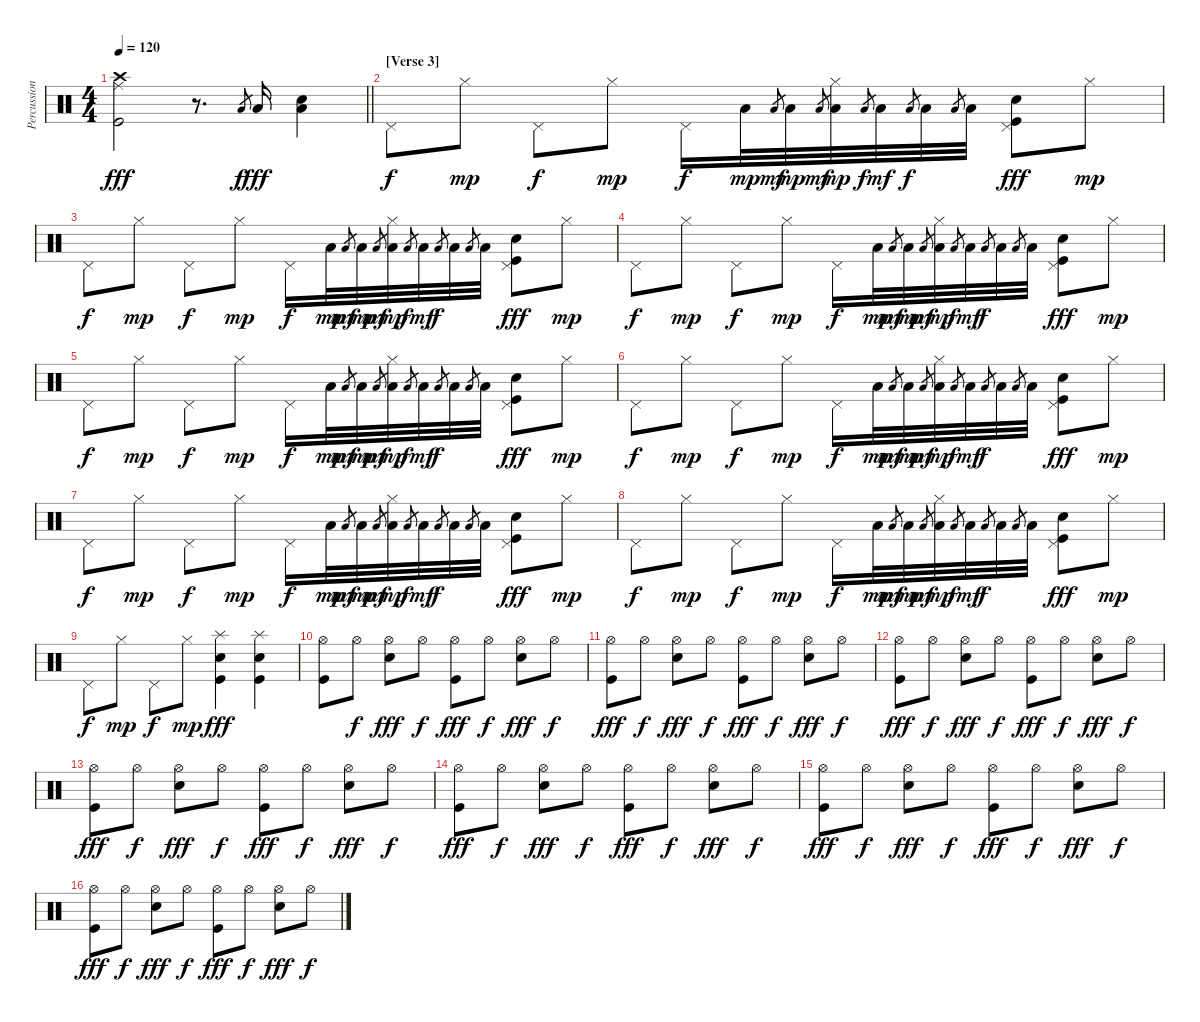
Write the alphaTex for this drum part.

\track ("Percussion" "Percussion") {instrument percussion}
\staff {score}
\articulation defaults
\ts (4 4)
\tempo 120
\clef neutral
\barLineRight lightlight
\ks c
("Crash high (hit)" "Ride (middle)" "Kick (hit)").2{dy fff} r.8{d} "Low Tom (hit)".8{gr dy f} "Low Tom (hit)".16{dy fff} ("Snare (hit) 2" "Low Tom (hit)").4 |
\section ("" "[Verse 3]")
"Pedal Hi-Hat (hit)".8{dy f} "Hi-Hat (closed)".8{dy mp} "Pedal Hi-Hat (hit)".8{dy f} "Hi-Hat (closed)".8{dy mp} "Pedal Hi-Hat (hit)".16{dy f} "Low Tom (hit)".32{dy mp} "Low Tom (hit)".8{gr dy mf} "Low Tom (hit)".32{dy mp} "Low Tom (hit)".8{gr dy mf} ("Hi-Hat (closed)" "Low Tom (hit)").32{dy mp} "Low Tom (hit)".8{gr dy f} "Low Tom (hit)".32{dy mf} "Low Tom (hit)".8{gr dy f} "Low Tom (hit)".32 "Low Tom (hit)".8{gr} "Low Tom (hit)".32 ("Pedal Hi-Hat (hit)" "Snare (hit) 2" "Kick (hit)").8{dy fff} "Hi-Hat (closed)".8{dy mp} |
"Pedal Hi-Hat (hit)".8{dy f} "Hi-Hat (closed)".8{dy mp} "Pedal Hi-Hat (hit)".8{dy f} "Hi-Hat (closed)".8{dy mp} "Pedal Hi-Hat (hit)".16{dy f} "Low Tom (hit)".32{dy mp} "Low Tom (hit)".8{gr dy mf} "Low Tom (hit)".32{dy mp} "Low Tom (hit)".8{gr dy mf} ("Hi-Hat (closed)" "Low Tom (hit)").32{dy mp} "Low Tom (hit)".8{gr dy f} "Low Tom (hit)".32{dy mf} "Low Tom (hit)".8{gr dy f} "Low Tom (hit)".32 "Low Tom (hit)".8{gr} "Low Tom (hit)".32 ("Pedal Hi-Hat (hit)" "Snare (hit) 2" "Kick (hit)").8{dy fff} "Hi-Hat (closed)".8{dy mp} |
"Pedal Hi-Hat (hit)".8{dy f} "Hi-Hat (closed)".8{dy mp} "Pedal Hi-Hat (hit)".8{dy f} "Hi-Hat (closed)".8{dy mp} "Pedal Hi-Hat (hit)".16{dy f} "Low Tom (hit)".32{dy mp} "Low Tom (hit)".8{gr dy mf} "Low Tom (hit)".32{dy mp} "Low Tom (hit)".8{gr dy mf} ("Hi-Hat (closed)" "Low Tom (hit)").32{dy mp} "Low Tom (hit)".8{gr dy f} "Low Tom (hit)".32{dy mf} "Low Tom (hit)".8{gr dy f} "Low Tom (hit)".32 "Low Tom (hit)".8{gr} "Low Tom (hit)".32 ("Pedal Hi-Hat (hit)" "Snare (hit) 2" "Kick (hit)").8{dy fff} "Hi-Hat (closed)".8{dy mp} |
"Pedal Hi-Hat (hit)".8{dy f} "Hi-Hat (closed)".8{dy mp} "Pedal Hi-Hat (hit)".8{dy f} "Hi-Hat (closed)".8{dy mp} "Pedal Hi-Hat (hit)".16{dy f} "Low Tom (hit)".32{dy mp} "Low Tom (hit)".8{gr dy mf} "Low Tom (hit)".32{dy mp} "Low Tom (hit)".8{gr dy mf} ("Hi-Hat (closed)" "Low Tom (hit)").32{dy mp} "Low Tom (hit)".8{gr dy f} "Low Tom (hit)".32{dy mf} "Low Tom (hit)".8{gr dy f} "Low Tom (hit)".32 "Low Tom (hit)".8{gr} "Low Tom (hit)".32 ("Pedal Hi-Hat (hit)" "Snare (hit) 2" "Kick (hit)").8{dy fff} "Hi-Hat (closed)".8{dy mp} |
"Pedal Hi-Hat (hit)".8{dy f} "Hi-Hat (closed)".8{dy mp} "Pedal Hi-Hat (hit)".8{dy f} "Hi-Hat (closed)".8{dy mp} "Pedal Hi-Hat (hit)".16{dy f} "Low Tom (hit)".32{dy mp} "Low Tom (hit)".8{gr dy mf} "Low Tom (hit)".32{dy mp} "Low Tom (hit)".8{gr dy mf} ("Hi-Hat (closed)" "Low Tom (hit)").32{dy mp} "Low Tom (hit)".8{gr dy f} "Low Tom (hit)".32{dy mf} "Low Tom (hit)".8{gr dy f} "Low Tom (hit)".32 "Low Tom (hit)".8{gr} "Low Tom (hit)".32 ("Pedal Hi-Hat (hit)" "Snare (hit) 2" "Kick (hit)").8{dy fff} "Hi-Hat (closed)".8{dy mp} |
"Pedal Hi-Hat (hit)".8{dy f} "Hi-Hat (closed)".8{dy mp} "Pedal Hi-Hat (hit)".8{dy f} "Hi-Hat (closed)".8{dy mp} "Pedal Hi-Hat (hit)".16{dy f} "Low Tom (hit)".32{dy mp} "Low Tom (hit)".8{gr dy mf} "Low Tom (hit)".32{dy mp} "Low Tom (hit)".8{gr dy mf} ("Hi-Hat (closed)" "Low Tom (hit)").32{dy mp} "Low Tom (hit)".8{gr dy f} "Low Tom (hit)".32{dy mf} "Low Tom (hit)".8{gr dy f} "Low Tom (hit)".32 "Low Tom (hit)".8{gr} "Low Tom (hit)".32 ("Pedal Hi-Hat (hit)" "Snare (hit) 2" "Kick (hit)").8{dy fff} "Hi-Hat (closed)".8{dy mp} |
"Pedal Hi-Hat (hit)".8{dy f} "Hi-Hat (closed)".8{dy mp} "Pedal Hi-Hat (hit)".8{dy f} "Hi-Hat (closed)".8{dy mp} "Pedal Hi-Hat (hit)".16{dy f} "Low Tom (hit)".32{dy mp} "Low Tom (hit)".8{gr dy mf} "Low Tom (hit)".32{dy mp} "Low Tom (hit)".8{gr dy mf} ("Hi-Hat (closed)" "Low Tom (hit)").32{dy mp} "Low Tom (hit)".8{gr dy f} "Low Tom (hit)".32{dy mf} "Low Tom (hit)".8{gr dy f} "Low Tom (hit)".32 "Low Tom (hit)".8{gr} "Low Tom (hit)".32 ("Pedal Hi-Hat (hit)" "Snare (hit) 2" "Kick (hit)").8{dy fff} "Hi-Hat (closed)".8{dy mp} |
"Pedal Hi-Hat (hit)".8{dy f} "Hi-Hat (closed)".8{dy mp} "Pedal Hi-Hat (hit)".8{dy f} "Hi-Hat (closed)".8{dy mp} ("Splash (hit)" "Snare (hit) 2" "Kick (hit)").4{dy fff} ("Splash (hit)" "Snare (hit) 2" "Kick (hit)").4 |
("Hi-Hat (open)" "Kick (hit)").8 "Hi-Hat (open)".8{dy f} ("Hi-Hat (open)" "Snare (hit) 2").8{dy fff} "Hi-Hat (open)".8{dy f} ("Hi-Hat (open)" "Kick (hit)").8{dy fff} "Hi-Hat (open)".8{dy f} ("Hi-Hat (open)" "Snare (hit) 2").8{dy fff} "Hi-Hat (open)".8{dy f} |
("Hi-Hat (open)" "Kick (hit)").8{dy fff} "Hi-Hat (open)".8{dy f} ("Hi-Hat (open)" "Snare (hit) 2").8{dy fff} "Hi-Hat (open)".8{dy f} ("Hi-Hat (open)" "Kick (hit)").8{dy fff} "Hi-Hat (open)".8{dy f} ("Hi-Hat (open)" "Snare (hit) 2").8{dy fff} "Hi-Hat (open)".8{dy f} |
("Hi-Hat (open)" "Kick (hit)").8{dy fff} "Hi-Hat (open)".8{dy f} ("Hi-Hat (open)" "Snare (hit) 2").8{dy fff} "Hi-Hat (open)".8{dy f} ("Hi-Hat (open)" "Kick (hit)").8{dy fff} "Hi-Hat (open)".8{dy f} ("Hi-Hat (open)" "Snare (hit) 2").8{dy fff} "Hi-Hat (open)".8{dy f} |
("Hi-Hat (open)" "Kick (hit)").8{dy fff} "Hi-Hat (open)".8{dy f} ("Hi-Hat (open)" "Snare (hit) 2").8{dy fff} "Hi-Hat (open)".8{dy f} ("Hi-Hat (open)" "Kick (hit)").8{dy fff} "Hi-Hat (open)".8{dy f} ("Hi-Hat (open)" "Snare (hit) 2").8{dy fff} "Hi-Hat (open)".8{dy f} |
("Hi-Hat (open)" "Kick (hit)").8{dy fff} "Hi-Hat (open)".8{dy f} ("Hi-Hat (open)" "Snare (hit) 2").8{dy fff} "Hi-Hat (open)".8{dy f} ("Hi-Hat (open)" "Kick (hit)").8{dy fff} "Hi-Hat (open)".8{dy f} ("Hi-Hat (open)" "Snare (hit) 2").8{dy fff} "Hi-Hat (open)".8{dy f} |
("Hi-Hat (open)" "Kick (hit)").8{dy fff} "Hi-Hat (open)".8{dy f} ("Hi-Hat (open)" "Snare (hit) 2").8{dy fff} "Hi-Hat (open)".8{dy f} ("Hi-Hat (open)" "Kick (hit)").8{dy fff} "Hi-Hat (open)".8{dy f} ("Hi-Hat (open)" "Snare (hit) 2").8{dy fff} "Hi-Hat (open)".8{dy f} |
("Hi-Hat (open)" "Kick (hit)").8{dy fff} "Hi-Hat (open)".8{dy f} ("Hi-Hat (open)" "Snare (hit) 2").8{dy fff} "Hi-Hat (open)".8{dy f} ("Hi-Hat (open)" "Kick (hit)").8{dy fff} "Hi-Hat (open)".8{dy f} ("Hi-Hat (open)" "Snare (hit) 2").8{dy fff} "Hi-Hat (open)".8{dy f}
